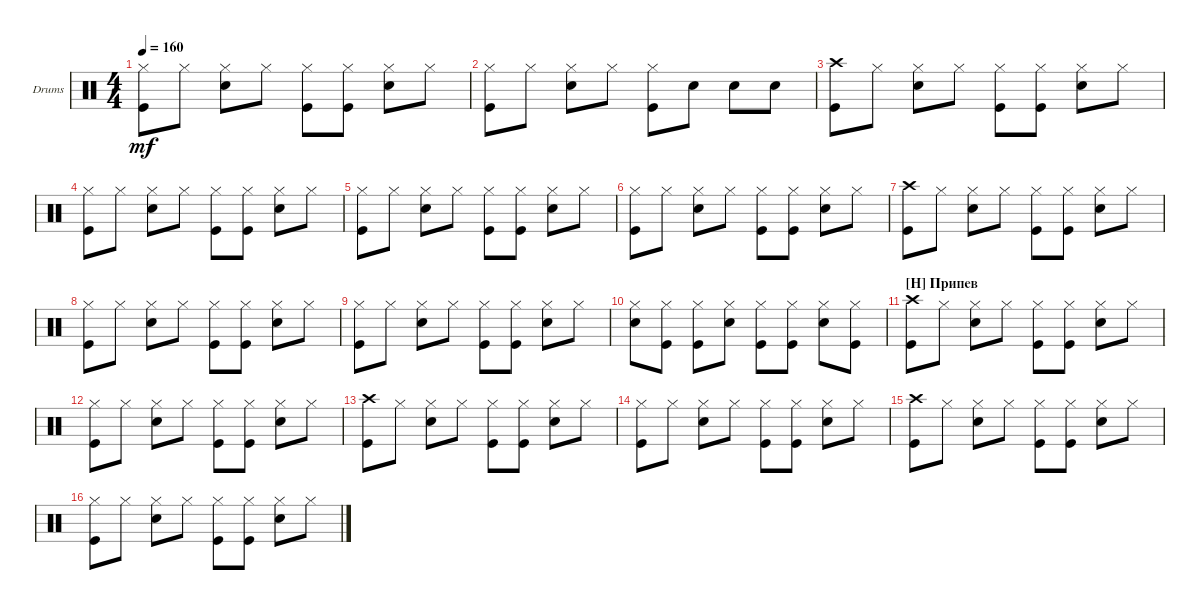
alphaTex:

\bracketExtendMode groupsimilarinstruments
\firstSystemTrackNameOrientation horizontal
\otherSystemsTrackNameOrientation horizontal
\track ("Drumkit" "Drums") {instrument percussion}
\staff {score}
\articulation defaults
\ts (4 4)
\tempo 160
\clef neutral
\ks c
("Kick (hit)" "Hi-Hat (closed)").8{dy mf} "Hi-Hat (closed)".8 ("Hi-Hat (closed)" "Snare (hit) 2").8 "Hi-Hat (closed)".8 ("Kick (hit)" "Hi-Hat (closed)").8 ("Hi-Hat (closed)" "Kick (hit)").8 ("Hi-Hat (closed)" "Snare (hit) 2").8 "Hi-Hat (closed)".8 |
("Kick (hit)" "Hi-Hat (closed)").8 "Hi-Hat (closed)".8 ("Hi-Hat (closed)" "Snare (hit) 2").8 "Hi-Hat (closed)".8 ("Kick (hit)" "Hi-Hat (closed)").8 "Snare (hit) 2".8 "Snare (hit) 2".8 "Snare (hit) 2".8 |
("Kick (hit)" "Crash high (hit)").8 "Hi-Hat (closed)".8 ("Hi-Hat (closed)" "Snare (hit) 2").8 "Hi-Hat (closed)".8 ("Kick (hit)" "Hi-Hat (closed)").8 ("Hi-Hat (closed)" "Kick (hit)").8 ("Hi-Hat (closed)" "Snare (hit) 2").8 "Hi-Hat (closed)".8 |
("Kick (hit)" "Hi-Hat (closed)").8 "Hi-Hat (closed)".8 ("Hi-Hat (closed)" "Snare (hit) 2").8 "Hi-Hat (closed)".8 ("Kick (hit)" "Hi-Hat (closed)").8 ("Hi-Hat (closed)" "Kick (hit)").8 ("Hi-Hat (closed)" "Snare (hit) 2").8 "Hi-Hat (closed)".8 |
("Kick (hit)" "Hi-Hat (closed)").8 "Hi-Hat (closed)".8 ("Hi-Hat (closed)" "Snare (hit) 2").8 "Hi-Hat (closed)".8 ("Kick (hit)" "Hi-Hat (closed)").8 ("Hi-Hat (closed)" "Kick (hit)").8 ("Hi-Hat (closed)" "Snare (hit) 2").8 "Hi-Hat (closed)".8 |
("Kick (hit)" "Hi-Hat (closed)").8 "Hi-Hat (closed)".8 ("Hi-Hat (closed)" "Snare (hit) 2").8 "Hi-Hat (closed)".8 ("Kick (hit)" "Hi-Hat (closed)").8 ("Hi-Hat (closed)" "Kick (hit)").8 ("Hi-Hat (closed)" "Snare (hit) 2").8 "Hi-Hat (closed)".8 |
("Kick (hit)" "Crash high (hit)").8 "Hi-Hat (closed)".8 ("Hi-Hat (closed)" "Snare (hit) 2").8 "Hi-Hat (closed)".8 ("Kick (hit)" "Hi-Hat (closed)").8 ("Hi-Hat (closed)" "Kick (hit)").8 ("Hi-Hat (closed)" "Snare (hit) 2").8 "Hi-Hat (closed)".8 |
("Kick (hit)" "Hi-Hat (closed)").8 "Hi-Hat (closed)".8 ("Hi-Hat (closed)" "Snare (hit) 2").8 "Hi-Hat (closed)".8 ("Kick (hit)" "Hi-Hat (closed)").8 ("Hi-Hat (closed)" "Kick (hit)").8 ("Hi-Hat (closed)" "Snare (hit) 2").8 "Hi-Hat (closed)".8 |
("Kick (hit)" "Hi-Hat (closed)").8 "Hi-Hat (closed)".8 ("Hi-Hat (closed)" "Snare (hit) 2").8 "Hi-Hat (closed)".8 ("Kick (hit)" "Hi-Hat (closed)").8 ("Hi-Hat (closed)" "Kick (hit)").8 ("Hi-Hat (closed)" "Snare (hit) 2").8 "Hi-Hat (closed)".8 |
("Hi-Hat (closed)" "Snare (hit) 2").8 ("Hi-Hat (closed)" "Kick (hit)").8 ("Hi-Hat (closed)" "Kick (hit)").8 ("Hi-Hat (closed)" "Snare (hit) 2").8 ("Kick (hit)" "Hi-Hat (closed)").8 ("Hi-Hat (closed)" "Kick (hit)").8 ("Hi-Hat (closed)" "Snare (hit) 2").8 ("Hi-Hat (closed)" "Kick (hit)").8 |
\section ("H" "Припев")
("Kick (hit)" "Crash high (hit)").8 "Hi-Hat (closed)".8 ("Hi-Hat (closed)" "Snare (hit) 2").8 "Hi-Hat (closed)".8 ("Kick (hit)" "Hi-Hat (closed)").8 ("Hi-Hat (closed)" "Kick (hit)").8 ("Hi-Hat (closed)" "Snare (hit) 2").8 "Hi-Hat (closed)".8 |
("Kick (hit)" "Hi-Hat (closed)").8 "Hi-Hat (closed)".8 ("Hi-Hat (closed)" "Snare (hit) 2").8 "Hi-Hat (closed)".8 ("Kick (hit)" "Hi-Hat (closed)").8 ("Hi-Hat (closed)" "Kick (hit)").8 ("Hi-Hat (closed)" "Snare (hit) 2").8 "Hi-Hat (closed)".8 |
("Kick (hit)" "Crash high (hit)").8 "Hi-Hat (closed)".8 ("Hi-Hat (closed)" "Snare (hit) 2").8 "Hi-Hat (closed)".8 ("Kick (hit)" "Hi-Hat (closed)").8 ("Hi-Hat (closed)" "Kick (hit)").8 ("Hi-Hat (closed)" "Snare (hit) 2").8 "Hi-Hat (closed)".8 |
("Kick (hit)" "Hi-Hat (closed)").8 "Hi-Hat (closed)".8 ("Hi-Hat (closed)" "Snare (hit) 2").8 "Hi-Hat (closed)".8 ("Kick (hit)" "Hi-Hat (closed)").8 ("Hi-Hat (closed)" "Kick (hit)").8 ("Hi-Hat (closed)" "Snare (hit) 2").8 "Hi-Hat (closed)".8 |
("Kick (hit)" "Crash high (hit)").8 "Hi-Hat (closed)".8 ("Hi-Hat (closed)" "Snare (hit) 2").8 "Hi-Hat (closed)".8 ("Kick (hit)" "Hi-Hat (closed)").8 ("Hi-Hat (closed)" "Kick (hit)").8 ("Hi-Hat (closed)" "Snare (hit) 2").8 "Hi-Hat (closed)".8 |
("Kick (hit)" "Hi-Hat (closed)").8 "Hi-Hat (closed)".8 ("Hi-Hat (closed)" "Snare (hit) 2").8 "Hi-Hat (closed)".8 ("Kick (hit)" "Hi-Hat (closed)").8 ("Hi-Hat (closed)" "Kick (hit)").8 ("Hi-Hat (closed)" "Snare (hit) 2").8 "Hi-Hat (closed)".8
